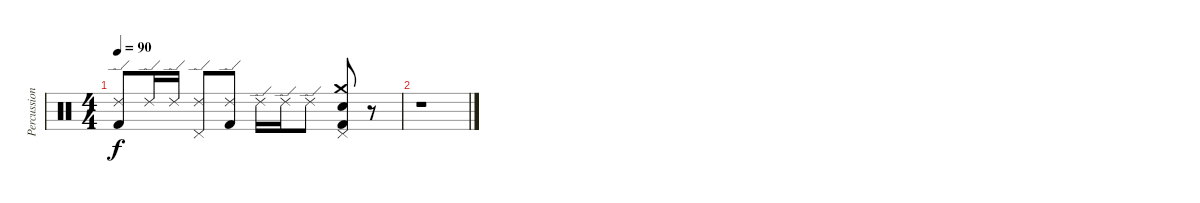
\track ("Percussion" "Percussion") {instrument percussion}
\staff {score}
\articulation defaults
\ts (4 4)
\tempo 90
\clef neutral
\ks c
("Ride (edge) 2" "Kick (hit) 2").8{dy f} "Ride (edge) 2".16 "Ride (edge) 2".16 ("Ride (edge) 2" "Pedal Hi-Hat (hit)").8 ("Ride (edge) 2" "Kick (hit) 2").8 "Ride (edge) 2".16 "Ride (edge) 2".16 "Ride (edge) 2".8 ("Crash medium (hit)" "Pedal Hi-Hat (hit)" "Snare (hit) 2" "Kick (hit) 2").8 r.8 |
r.1
